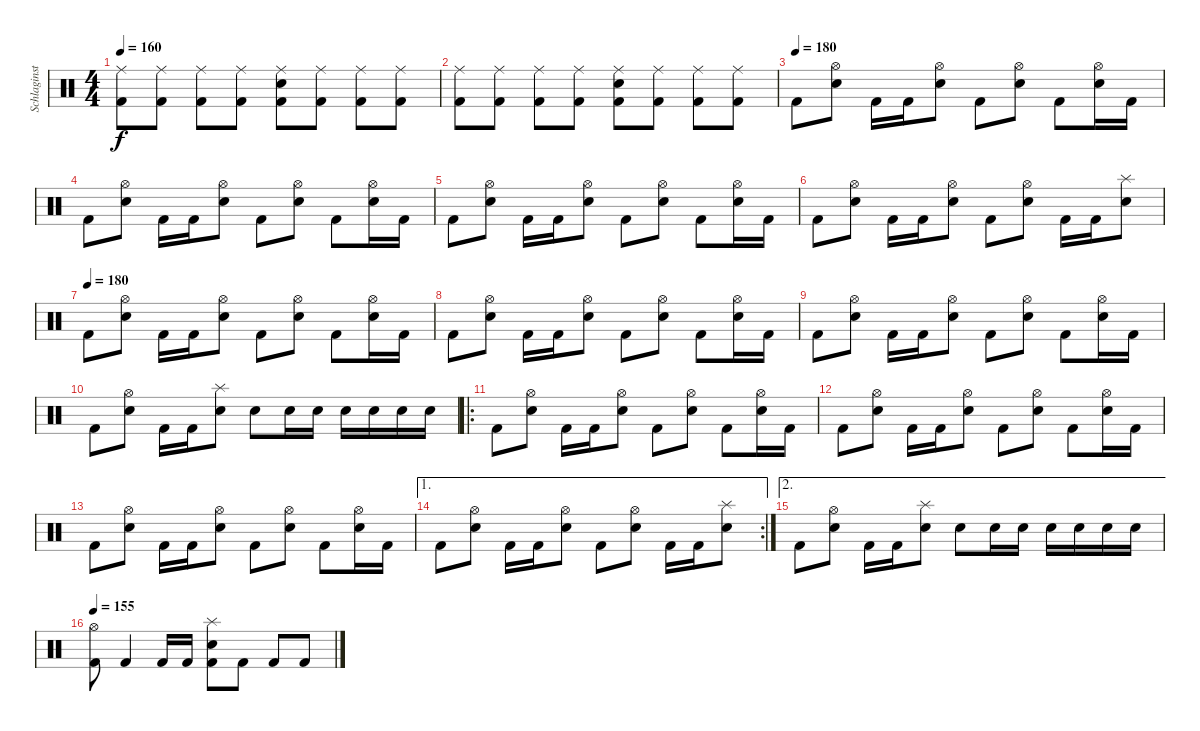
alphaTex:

\track ("Schlaginstrumente - Auswahl" "Schlaginst") {instrument percussion}
\staff {score}
\articulation defaults
\ts (4 4)
\tempo 160
\clef neutral
\ks c
("Ride (middle)" "Kick (hit) 2").8{dy f} ("Ride (middle)" "Kick (hit) 2").8 ("Ride (middle)" "Kick (hit) 2").8 ("Ride (middle)" "Kick (hit) 2").8 ("Ride (middle)" "Snare (hit) 2" "Kick (hit) 2").8 ("Ride (middle)" "Kick (hit) 2").8 ("Ride (middle)" "Kick (hit) 2").8 ("Ride (middle)" "Kick (hit) 2").8 |
("Ride (middle)" "Kick (hit) 2").8 ("Ride (middle)" "Kick (hit) 2").8 ("Ride (middle)" "Kick (hit) 2").8 ("Ride (middle)" "Kick (hit) 2").8 ("Ride (middle)" "Snare (hit) 2" "Kick (hit) 2").8 ("Ride (middle)" "Kick (hit) 2").8 ("Ride (middle)" "Kick (hit) 2").8 ("Ride (middle)" "Kick (hit) 2").8 |
\tempo (180)
"Kick (hit) 2".8 ("Hi-Hat (open)" "Snare (hit) 2").8 "Kick (hit) 2".16 "Kick (hit) 2".16 ("Hi-Hat (open)" "Snare (hit) 2").8 "Kick (hit) 2".8 ("Hi-Hat (open)" "Snare (hit) 2").8 "Kick (hit) 2".8 ("Hi-Hat (open)" "Snare (hit) 2").16 "Kick (hit) 2".16 |
"Kick (hit) 2".8 ("Hi-Hat (open)" "Snare (hit) 2").8 "Kick (hit) 2".16 "Kick (hit) 2".16 ("Hi-Hat (open)" "Snare (hit) 2").8 "Kick (hit) 2".8 ("Hi-Hat (open)" "Snare (hit) 2").8 "Kick (hit) 2".8 ("Hi-Hat (open)" "Snare (hit) 2").16 "Kick (hit) 2".16 |
"Kick (hit) 2".8 ("Hi-Hat (open)" "Snare (hit) 2").8 "Kick (hit) 2".16 "Kick (hit) 2".16 ("Hi-Hat (open)" "Snare (hit) 2").8 "Kick (hit) 2".8 ("Hi-Hat (open)" "Snare (hit) 2").8 "Kick (hit) 2".8 ("Hi-Hat (open)" "Snare (hit) 2").16 "Kick (hit) 2".16 |
"Kick (hit) 2".8 ("Hi-Hat (open)" "Snare (hit) 2").8 "Kick (hit) 2".16 "Kick (hit) 2".16 ("Hi-Hat (open)" "Snare (hit) 2").8 "Kick (hit) 2".8 ("Hi-Hat (open)" "Snare (hit) 2").8 "Kick (hit) 2".16 "Kick (hit) 2".16 ("Splash (hit)" "Snare (hit) 2").8 |
\tempo (180)
"Kick (hit) 2".8 ("Hi-Hat (open)" "Snare (hit) 2").8 "Kick (hit) 2".16 "Kick (hit) 2".16 ("Hi-Hat (open)" "Snare (hit) 2").8 "Kick (hit) 2".8 ("Hi-Hat (open)" "Snare (hit) 2").8 "Kick (hit) 2".8 ("Hi-Hat (open)" "Snare (hit) 2").16 "Kick (hit) 2".16 |
"Kick (hit) 2".8 ("Hi-Hat (open)" "Snare (hit) 2").8 "Kick (hit) 2".16 "Kick (hit) 2".16 ("Hi-Hat (open)" "Snare (hit) 2").8 "Kick (hit) 2".8 ("Hi-Hat (open)" "Snare (hit) 2").8 "Kick (hit) 2".8 ("Hi-Hat (open)" "Snare (hit) 2").16 "Kick (hit) 2".16 |
"Kick (hit) 2".8 ("Hi-Hat (open)" "Snare (hit) 2").8 "Kick (hit) 2".16 "Kick (hit) 2".16 ("Hi-Hat (open)" "Snare (hit) 2").8 "Kick (hit) 2".8 ("Hi-Hat (open)" "Snare (hit) 2").8 "Kick (hit) 2".8 ("Hi-Hat (open)" "Snare (hit) 2").16 "Kick (hit) 2".16 |
"Kick (hit) 2".8 ("Hi-Hat (open)" "Snare (hit) 2").8 "Kick (hit) 2".16 "Kick (hit) 2".16 ("Splash (hit)" "Snare (hit) 2").8 "Snare (hit) 2".8 "Snare (hit) 2".16 "Snare (hit) 2".16 "Snare (hit) 2".16 "Snare (hit) 2".16 "Snare (hit) 2".16 "Snare (hit) 2".16 |
\ro "Kick (hit) 2".8
("Hi-Hat (open)" "Snare (hit) 2").8 "Kick (hit) 2".16 "Kick (hit) 2".16 ("Hi-Hat (open)" "Snare (hit) 2").8 "Kick (hit) 2".8 ("Hi-Hat (open)" "Snare (hit) 2").8 "Kick (hit) 2".8 ("Hi-Hat (open)" "Snare (hit) 2").16 "Kick (hit) 2".16 |
"Kick (hit) 2".8 ("Hi-Hat (open)" "Snare (hit) 2").8 "Kick (hit) 2".16 "Kick (hit) 2".16 ("Hi-Hat (open)" "Snare (hit) 2").8 "Kick (hit) 2".8 ("Hi-Hat (open)" "Snare (hit) 2").8 "Kick (hit) 2".8 ("Hi-Hat (open)" "Snare (hit) 2").16 "Kick (hit) 2".16 |
"Kick (hit) 2".8 ("Hi-Hat (open)" "Snare (hit) 2").8 "Kick (hit) 2".16 "Kick (hit) 2".16 ("Hi-Hat (open)" "Snare (hit) 2").8 "Kick (hit) 2".8 ("Hi-Hat (open)" "Snare (hit) 2").8 "Kick (hit) 2".8 ("Hi-Hat (open)" "Snare (hit) 2").16 "Kick (hit) 2".16 |
\ae 1
\rc 2 "Kick (hit) 2".8
("Hi-Hat (open)" "Snare (hit) 2").8 "Kick (hit) 2".16 "Kick (hit) 2".16 ("Hi-Hat (open)" "Snare (hit) 2").8 "Kick (hit) 2".8 ("Hi-Hat (open)" "Snare (hit) 2").8 "Kick (hit) 2".16 "Kick (hit) 2".16 ("Splash (hit)" "Snare (hit) 2").8 |
\ae 2 "Kick (hit) 2".8
("Hi-Hat (open)" "Snare (hit) 2").8 "Kick (hit) 2".16 "Kick (hit) 2".16 ("Splash (hit)" "Snare (hit) 2").8 "Snare (hit) 2".8 "Snare (hit) 2".16 "Snare (hit) 2".16 "Snare (hit) 2".16 "Snare (hit) 2".16 "Snare (hit) 2".16 "Snare (hit) 2".16 |
\tempo 155
("Hi-Hat (open)" "Kick (hit) 2").8 "Kick (hit) 2".4 "Kick (hit) 2".16 "Kick (hit) 2".16 ("Splash (hit)" "Snare (hit) 2" "Kick (hit) 2").8 "Kick (hit) 2".8 "Kick (hit) 2".8 "Kick (hit) 2".8
